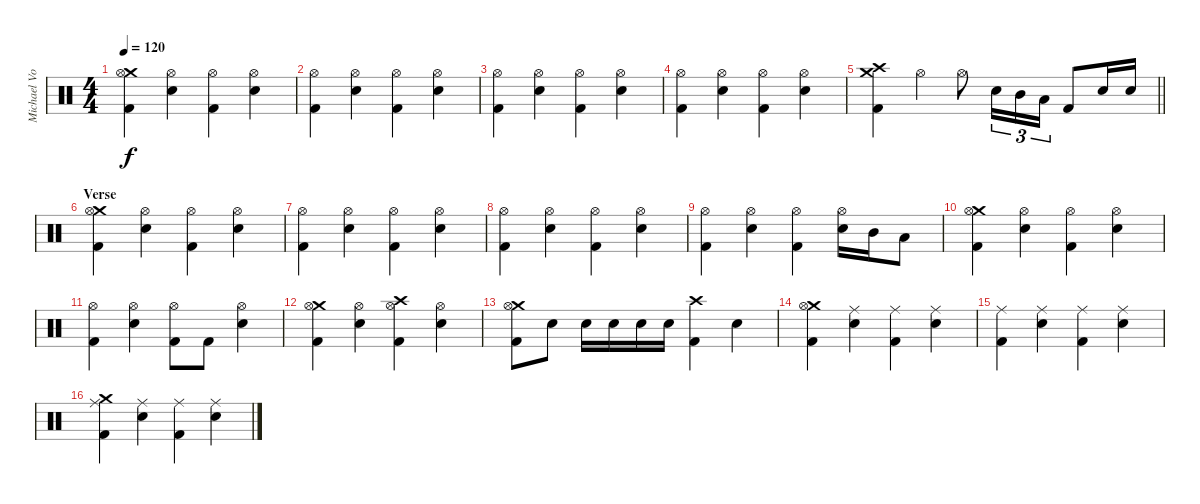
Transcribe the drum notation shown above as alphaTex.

\track ("Michael Von Knorring" "Michael Vo") {instrument percussion}
\staff {score}
\articulation defaults
\ts (4 4)
\tempo 120
\clef neutral
\ks c
("Crash medium (hit)" "Hi-Hat (open)" "Kick (hit) 2").4{dy f} ("Hi-Hat (open)" "Snare (hit) 2").4 ("Hi-Hat (open)" "Kick (hit) 2").4 ("Hi-Hat (open)" "Snare (hit) 2").4 |
("Hi-Hat (open)" "Kick (hit) 2").4 ("Hi-Hat (open)" "Snare (hit) 2").4 ("Hi-Hat (open)" "Kick (hit) 2").4 ("Hi-Hat (open)" "Snare (hit) 2").4 |
("Hi-Hat (open)" "Kick (hit) 2").4 ("Hi-Hat (open)" "Snare (hit) 2").4 ("Hi-Hat (open)" "Kick (hit) 2").4 ("Hi-Hat (open)" "Snare (hit) 2").4 |
("Hi-Hat (open)" "Kick (hit) 2").4 ("Hi-Hat (open)" "Snare (hit) 2").4 ("Hi-Hat (open)" "Kick (hit) 2").4 ("Hi-Hat (open)" "Snare (hit) 2").4 |
\barLineRight lightlight
("Crash high (hit)" "Crash medium (hit)" "Kick (hit) 2").4 "Hi-Hat (open)".4 "Hi-Hat (open)".8 "Snare (hit) 2".16{tu (3 2)} "Mid Tom (hit)".16{tu (3 2)} "Low Tom (hit)".16{tu (3 2)} "Kick (hit) 2".8 "Snare (hit) 2".16 "Snare (hit) 2".16 |
\section ("" "Verse")
("Crash medium (hit)" "Hi-Hat (open)" "Kick (hit) 2").4 ("Hi-Hat (open)" "Snare (hit) 2").4 ("Hi-Hat (open)" "Kick (hit) 2").4 ("Hi-Hat (open)" "Snare (hit) 2").4 |
("Hi-Hat (open)" "Kick (hit) 2").4 ("Hi-Hat (open)" "Snare (hit) 2").4 ("Hi-Hat (open)" "Kick (hit) 2").4 ("Hi-Hat (open)" "Snare (hit) 2").4 |
("Hi-Hat (open)" "Kick (hit) 2").4 ("Hi-Hat (open)" "Snare (hit) 2").4 ("Hi-Hat (open)" "Kick (hit) 2").4 ("Hi-Hat (open)" "Snare (hit) 2").4 |
("Hi-Hat (open)" "Kick (hit) 2").4 ("Hi-Hat (open)" "Snare (hit) 2").4 ("Hi-Hat (open)" "Kick (hit) 2").4 ("Hi-Hat (open)" "Snare (hit) 2").16 "Mid Tom (hit)".16 "Low Tom (hit)".8 |
("Crash medium (hit)" "Hi-Hat (open)" "Kick (hit) 2").4 ("Hi-Hat (open)" "Snare (hit) 2").4 ("Hi-Hat (open)" "Kick (hit) 2").4 ("Hi-Hat (open)" "Snare (hit) 2").4 |
("Hi-Hat (open)" "Kick (hit) 2").4 ("Hi-Hat (open)" "Snare (hit) 2").4 ("Hi-Hat (open)" "Kick (hit) 2").8 "Kick (hit) 2".8 ("Hi-Hat (open)" "Snare (hit) 2").4 |
("Crash medium (hit)" "Hi-Hat (open)" "Kick (hit) 2").4 ("Hi-Hat (open)" "Snare (hit) 2").4 ("Crash high (hit)" "Hi-Hat (open)" "Kick (hit) 2").4 ("Hi-Hat (open)" "Snare (hit) 2").4 |
("Crash medium (hit)" "Hi-Hat (open)" "Kick (hit) 2").8 "Snare (hit) 2".8 "Snare (hit) 2".16 "Snare (hit) 2".16 "Snare (hit) 2".16 "Snare (hit) 2".16 ("Crash high (hit)" "Kick (hit) 2").4 "Snare (hit) 2".4 |
("Crash medium (hit)" "Hi-Hat (open)" "Kick (hit) 2").4 ("Ride (middle)" "Snare (hit) 2").4 ("Ride (middle)" "Kick (hit) 2").4 ("Ride (middle)" "Snare (hit) 2").4 |
("Ride (middle)" "Kick (hit) 2").4 ("Ride (middle)" "Snare (hit) 2").4 ("Ride (middle)" "Kick (hit) 2").4 ("Ride (middle)" "Snare (hit) 2").4 |
("Crash medium (hit)" "Ride (middle)" "Kick (hit) 2").4 ("Ride (middle)" "Snare (hit) 2").4 ("Ride (middle)" "Kick (hit) 2").4 ("Ride (middle)" "Snare (hit) 2").4
